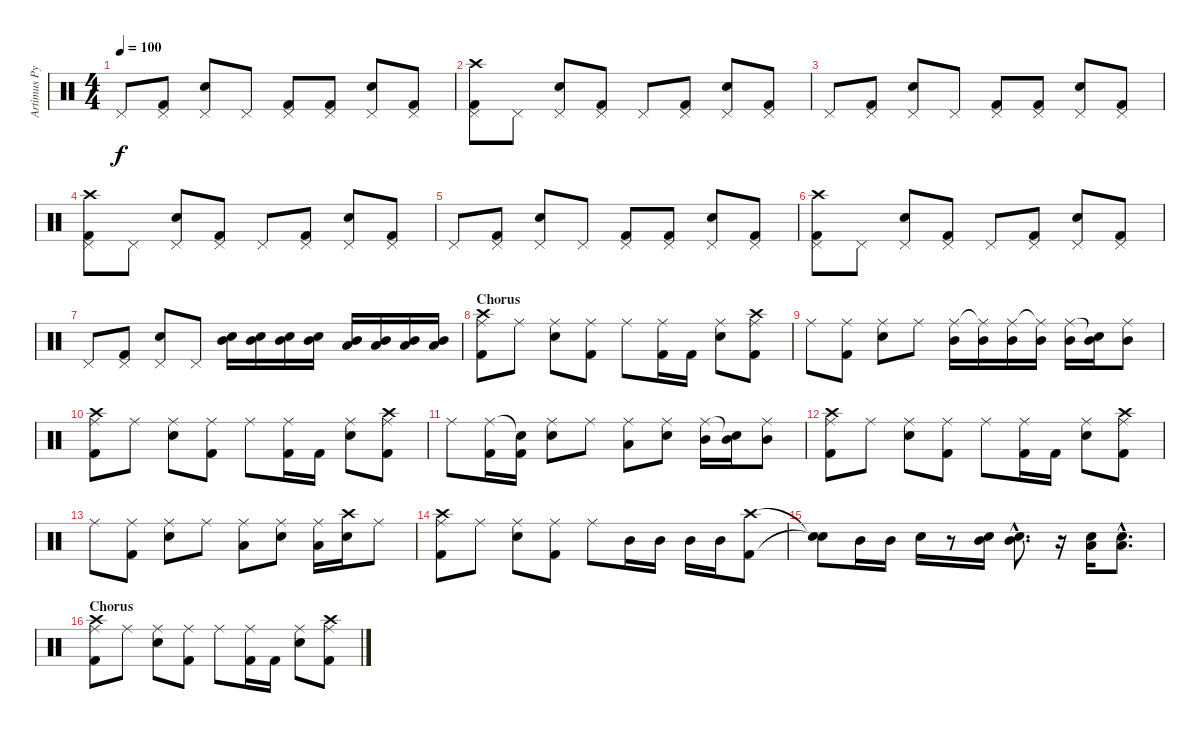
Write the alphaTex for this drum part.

\track ("Artimus Pyle " "Artimus Py") {instrument percussion}
\staff {score}
\articulation defaults
\ts (4 4)
\tempo 100
\clef neutral
\ks c "Pedal Hi-Hat (hit)".8{dy f}
("Pedal Hi-Hat (hit)" "Kick (hit) 2").8 ("Pedal Hi-Hat (hit)" "Electric Snare (hit)").8 "Pedal Hi-Hat (hit)".8 ("Pedal Hi-Hat (hit)" "Kick (hit) 2").8 ("Pedal Hi-Hat (hit)" "Kick (hit) 2").8 ("Pedal Hi-Hat (hit)" "Electric Snare (hit)").8 ("Pedal Hi-Hat (hit)" "Kick (hit) 2").8 |
("Crash high (hit)" "Pedal Hi-Hat (hit)" "Kick (hit) 2").8 "Pedal Hi-Hat (hit)".8 ("Pedal Hi-Hat (hit)" "Electric Snare (hit)").8 ("Pedal Hi-Hat (hit)" "Kick (hit) 2").8 "Pedal Hi-Hat (hit)".8 ("Pedal Hi-Hat (hit)" "Kick (hit) 2").8 ("Pedal Hi-Hat (hit)" "Electric Snare (hit)").8 ("Pedal Hi-Hat (hit)" "Kick (hit) 2").8 |
"Pedal Hi-Hat (hit)".8 ("Pedal Hi-Hat (hit)" "Kick (hit) 2").8 ("Pedal Hi-Hat (hit)" "Electric Snare (hit)").8 "Pedal Hi-Hat (hit)".8 ("Pedal Hi-Hat (hit)" "Kick (hit) 2").8 ("Pedal Hi-Hat (hit)" "Kick (hit) 2").8 ("Pedal Hi-Hat (hit)" "Electric Snare (hit)").8 ("Pedal Hi-Hat (hit)" "Kick (hit) 2").8 |
("Crash high (hit)" "Pedal Hi-Hat (hit)" "Kick (hit) 2").8 "Pedal Hi-Hat (hit)".8 ("Pedal Hi-Hat (hit)" "Electric Snare (hit)").8 ("Pedal Hi-Hat (hit)" "Kick (hit) 2").8 "Pedal Hi-Hat (hit)".8 ("Pedal Hi-Hat (hit)" "Kick (hit) 2").8 ("Pedal Hi-Hat (hit)" "Electric Snare (hit)").8 ("Pedal Hi-Hat (hit)" "Kick (hit) 2").8 |
"Pedal Hi-Hat (hit)".8 ("Pedal Hi-Hat (hit)" "Kick (hit) 2").8 ("Pedal Hi-Hat (hit)" "Electric Snare (hit)").8 "Pedal Hi-Hat (hit)".8 ("Pedal Hi-Hat (hit)" "Kick (hit) 2").8 ("Pedal Hi-Hat (hit)" "Kick (hit) 2").8 ("Pedal Hi-Hat (hit)" "Electric Snare (hit)").8 ("Pedal Hi-Hat (hit)" "Kick (hit) 2").8 |
("Crash high (hit)" "Pedal Hi-Hat (hit)" "Kick (hit) 2").8 "Pedal Hi-Hat (hit)".8 ("Pedal Hi-Hat (hit)" "Electric Snare (hit)").8 ("Pedal Hi-Hat (hit)" "Kick (hit) 2").8 "Pedal Hi-Hat (hit)".8 ("Pedal Hi-Hat (hit)" "Kick (hit) 2").8 ("Pedal Hi-Hat (hit)" "Electric Snare (hit)").8 ("Pedal Hi-Hat (hit)" "Kick (hit) 2").8 |
"Pedal Hi-Hat (hit)".8 ("Pedal Hi-Hat (hit)" "Kick (hit) 2").8 ("Pedal Hi-Hat (hit)" "Electric Snare (hit)").8 "Pedal Hi-Hat (hit)".8 ("Electric Snare (hit)" "Mid Tom (hit)").16 ("Electric Snare (hit)" "Mid Tom (hit)").16 ("Electric Snare (hit)" "Mid Tom (hit)").16 ("Electric Snare (hit)" "Mid Tom (hit)").16 ("Low Tom (hit)" "Mid Tom (hit)").16 ("Low Tom (hit)" "Mid Tom (hit)").16 ("Low Tom (hit)" "Mid Tom (hit)").16 ("Low Tom (hit)" "Mid Tom (hit)").16 |
\section ("" "Chorus")
("Crash high (hit)" "Ride (middle)" "Kick (hit) 2").8 "Ride (middle)".8 ("Ride (middle)" "Electric Snare (hit)").8 ("Ride (middle)" "Kick (hit) 2").8 "Ride (middle)".8 ("Ride (middle)" "Kick (hit) 2").16 "Kick (hit) 2".16 ("Ride (middle)" "Electric Snare (hit)").8 ("Crash high (hit)" "Ride (middle)" "Kick (hit) 2").8 |
"Ride (middle)".8 ("Ride (middle)" "Kick (hit) 2").8 ("Ride (middle)" "Electric Snare (hit)").8 "Ride (middle)".8 ("Ride (middle)" "Mid Tom (hit)").16 ("Ride (middle)"{t} "Mid Tom (hit)").16 ("Ride (middle)" "Mid Tom (hit)").16 ("Ride (middle)"{t} "Mid Tom (hit)").16 ("Ride (middle)" "Mid Tom (hit)").16 ("Snare (hit)"{t} "Mid Tom (hit)").16 ("Ride (middle)" "Mid Tom (hit)").8 |
("Crash high (hit)" "Ride (middle)" "Kick (hit) 2").8 "Ride (middle)".8 ("Ride (middle)" "Electric Snare (hit)").8 ("Ride (middle)" "Kick (hit) 2").8 "Ride (middle)".8 ("Ride (middle)" "Kick (hit) 2").16 "Kick (hit) 2".16 ("Ride (middle)" "Electric Snare (hit)").8 ("Crash high (hit)" "Ride (middle)" "Kick (hit) 2").8 |
"Ride (middle)".8 ("Ride (middle)" "Kick (hit) 2").16 ("Snare (hit)"{t} "Kick (hit) 2").16 ("Ride (middle)" "Electric Snare (hit)").8 "Ride (middle)".8 ("Ride (middle)" "Low Tom (hit)").8 ("Ride (middle)" "Electric Snare (hit)").8 ("Ride (middle)" "Mid Tom (hit)").16 ("Snare (hit)"{t} "Mid Tom (hit)").16 ("Ride (middle)" "Mid Tom (hit)").8 |
("Crash high (hit)" "Ride (middle)" "Kick (hit) 2").8 "Ride (middle)".8 ("Ride (middle)" "Electric Snare (hit)").8 ("Ride (middle)" "Kick (hit) 2").8 "Ride (middle)".8 ("Ride (middle)" "Kick (hit) 2").16 "Kick (hit) 2".16 ("Ride (middle)" "Electric Snare (hit)").8 ("Crash high (hit)" "Ride (middle)" "Kick (hit) 2").8 |
"Ride (middle)".8 ("Ride (middle)" "Kick (hit) 2").8 ("Ride (middle)" "Electric Snare (hit)").8 "Ride (middle)".8 ("Ride (middle)" "Low Tom (hit)").8 ("Ride (middle)" "Electric Snare (hit)").8 ("Ride (middle)" "Low Tom (hit)").16 ("Crash high (hit)" "Electric Snare (hit)").16 "Ride (middle)".8 |
("Crash high (hit)" "Ride (middle)" "Kick (hit) 2").8 "Ride (middle)".8 ("Ride (middle)" "Electric Snare (hit)").8 ("Ride (middle)" "Kick (hit) 2").8 "Ride (middle)".8 "Mid Tom (hit)".16 "Mid Tom (hit)".16 "Mid Tom (hit)".16 "Mid Tom (hit)".16 ("Crash high (hit)" "Kick (hit) 2").8 |
("Snare (hit)"{t} "Snare (hit)"{t}).8 "Mid Tom (hit)".16 "Mid Tom (hit)".16 "Electric Snare (hit)".16 r.8 ("Electric Snare (hit)" "Mid Tom (hit)").16 ("Electric Snare (hit)"{hac} "Mid Tom (hit)"{hac}).8{d} r.16 ("Electric Snare (hit)" "Low Tom (hit)").16 ("Electric Snare (hit)"{hac} "Low Tom (hit)"{hac}).8{d} |
\section ("" "Chorus")
("Crash high (hit)" "Ride (middle)" "Kick (hit) 2").8 "Ride (middle)".8 ("Ride (middle)" "Electric Snare (hit)").8 ("Ride (middle)" "Kick (hit) 2").8 "Ride (middle)".8 ("Ride (middle)" "Kick (hit) 2").16 "Kick (hit) 2".16 ("Ride (middle)" "Electric Snare (hit)").8 ("Crash high (hit)" "Ride (middle)" "Kick (hit) 2").8
